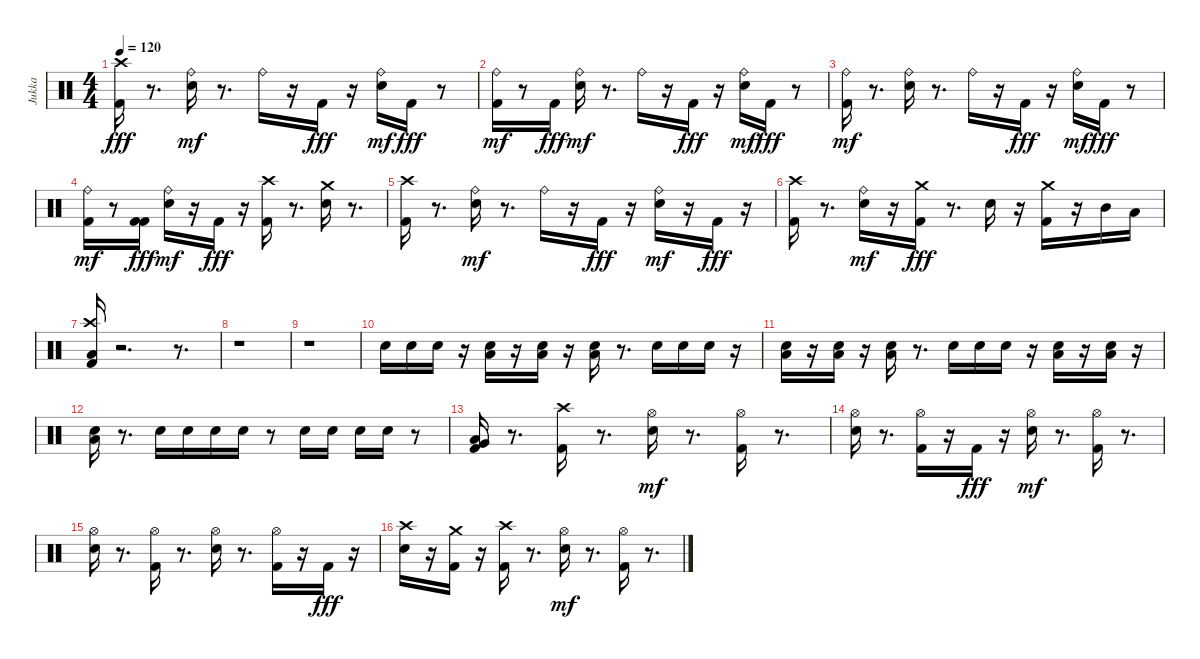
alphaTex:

\track ("Jukka" "Jukka") {instrument percussion}
\staff {score}
\articulation defaults
\ts (4 4)
\tempo 120
\clef neutral
\ks c
("Kick (hit) 2" "Crash high (hit)").16{dy fff} r.8{d} ("Electric Snare (hit)" "Ride (bell)").16{dy mf} r.8{d} "Ride (bell)".16 r.16 "Kick (hit) 2".16{dy fff} r.16 ("Electric Snare (hit)" "Ride (bell)").16{dy mf} "Kick (hit) 2".16{dy fff} r.8 |
("Kick (hit) 2" "Ride (bell)").16{dy mf} r.8 "Kick (hit) 2".16{dy fff} ("Electric Snare (hit)" "Ride (bell)").16{dy mf} r.8{d} "Ride (bell)".16 r.16 "Kick (hit) 2".16{dy fff} r.16 ("Electric Snare (hit)" "Ride (bell)").16{dy mf} "Kick (hit) 2".16{dy fff} r.8 |
("Kick (hit) 2" "Ride (bell)").16{dy mf} r.8{d} ("Electric Snare (hit)" "Ride (bell)").16 r.8{d} "Ride (bell)".16 r.16 "Kick (hit) 2".16{dy fff} r.16 ("Electric Snare (hit)" "Ride (bell)").16{dy mf} "Kick (hit) 2".16{dy fff} r.8 |
("Kick (hit) 2" "Ride (bell)").16{dy mf} r.8 ("Kick (hit) 2" "Kick (hit) 2").16{dy fff} ("Electric Snare (hit)" "Ride (bell)").16{dy mf} r.16 "Kick (hit) 2".16{dy fff} r.16 ("Kick (hit) 2" "Crash high (hit)").16 r.8{d} ("Electric Snare (hit)" "Crash medium (hit)").16 r.8{d} |
("Kick (hit) 2" "Crash high (hit)").16 r.8{d} ("Electric Snare (hit)" "Ride (bell)").16{dy mf} r.8{d} "Ride (bell)".16 r.16 "Kick (hit) 2".16{dy fff} r.16 ("Electric Snare (hit)" "Ride (bell)").16{dy mf} r.16 "Kick (hit) 2".16{dy fff} r.16 |
("Kick (hit) 2" "Crash high (hit)").16 r.8{d} ("Electric Snare (hit)" "Ride (bell)").16{dy mf} r.16 ("Kick (hit) 2" "Crash medium (hit)").16{dy fff} r.8{d} "Electric Snare (hit)".16 r.16 ("Kick (hit) 2" "Crash medium (hit)").16 r.16 "Mid Tom (hit)".16 "Low Tom (hit)".16 |
("Kick (hit) 2" "Low Floor Tom (hit)" "Crash high (hit)").16 r.2{d} r.8{d} |
r.1 |
r.1 |
"Electric Snare (hit)".16 "Electric Snare (hit)".16 "Electric Snare (hit)".16 r.16 ("Electric Snare (hit)" "Low Floor Tom (hit)").16 r.16 ("Electric Snare (hit)" "Low Floor Tom (hit)").16 r.16 ("Electric Snare (hit)" "Low Floor Tom (hit)").16 r.8{d} "Electric Snare (hit)".16 "Electric Snare (hit)".16 "Electric Snare (hit)".16 r.16 |
("Electric Snare (hit)" "Low Floor Tom (hit)").16 r.16 ("Electric Snare (hit)" "Low Floor Tom (hit)").16 r.16 ("Electric Snare (hit)" "Low Floor Tom (hit)").16 r.8{d} "Electric Snare (hit)".16 "Electric Snare (hit)".16 "Electric Snare (hit)".16 r.16 ("Electric Snare (hit)" "Low Floor Tom (hit)").16 r.16 ("Electric Snare (hit)" "Low Floor Tom (hit)").16 r.16 |
("Electric Snare (hit)" "Low Floor Tom (hit)").16 r.8{d} "Electric Snare (hit)".16 "Electric Snare (hit)".16 "Electric Snare (hit)".16 "Electric Snare (hit)".16 r.8 "Electric Snare (hit)".16 "Electric Snare (hit)".16 "Electric Snare (hit)".16 "Electric Snare (hit)".16 r.8 |
("Kick (hit) 2" "Low Floor Tom (hit)" "Very Low Tom (hit)").16 r.8{d} ("Kick (hit) 2" "Crash high (hit)").16 r.8{d} ("Electric Snare (hit)" "Hi-Hat (open)").16{dy mf} r.8{d} ("Kick (hit) 2" "Hi-Hat (open)").16 r.8{d} |
("Electric Snare (hit)" "Hi-Hat (open)").16 r.8{d} ("Kick (hit) 2" "Hi-Hat (open)").16 r.16 "Kick (hit) 2".16{dy fff} r.16 ("Electric Snare (hit)" "Hi-Hat (open)").16{dy mf} r.8{d} ("Kick (hit) 2" "Hi-Hat (open)").16 r.8{d} |
("Electric Snare (hit)" "Hi-Hat (open)").16 r.8{d} ("Kick (hit) 2" "Hi-Hat (open)").16 r.8{d} ("Electric Snare (hit)" "Hi-Hat (open)").16 r.8{d} ("Kick (hit) 2" "Hi-Hat (open)").16 r.16 "Kick (hit) 2".16{dy fff} r.16 |
("Electric Snare (hit)" "Crash high (hit)").16 r.16 ("Kick (hit) 2" "Crash medium (hit)").16 r.16 ("Kick (hit) 2" "Crash high (hit)").16 r.8{d} ("Electric Snare (hit)" "Hi-Hat (open)").16{dy mf} r.8{d} ("Kick (hit) 2" "Hi-Hat (open)").16 r.8{d}
